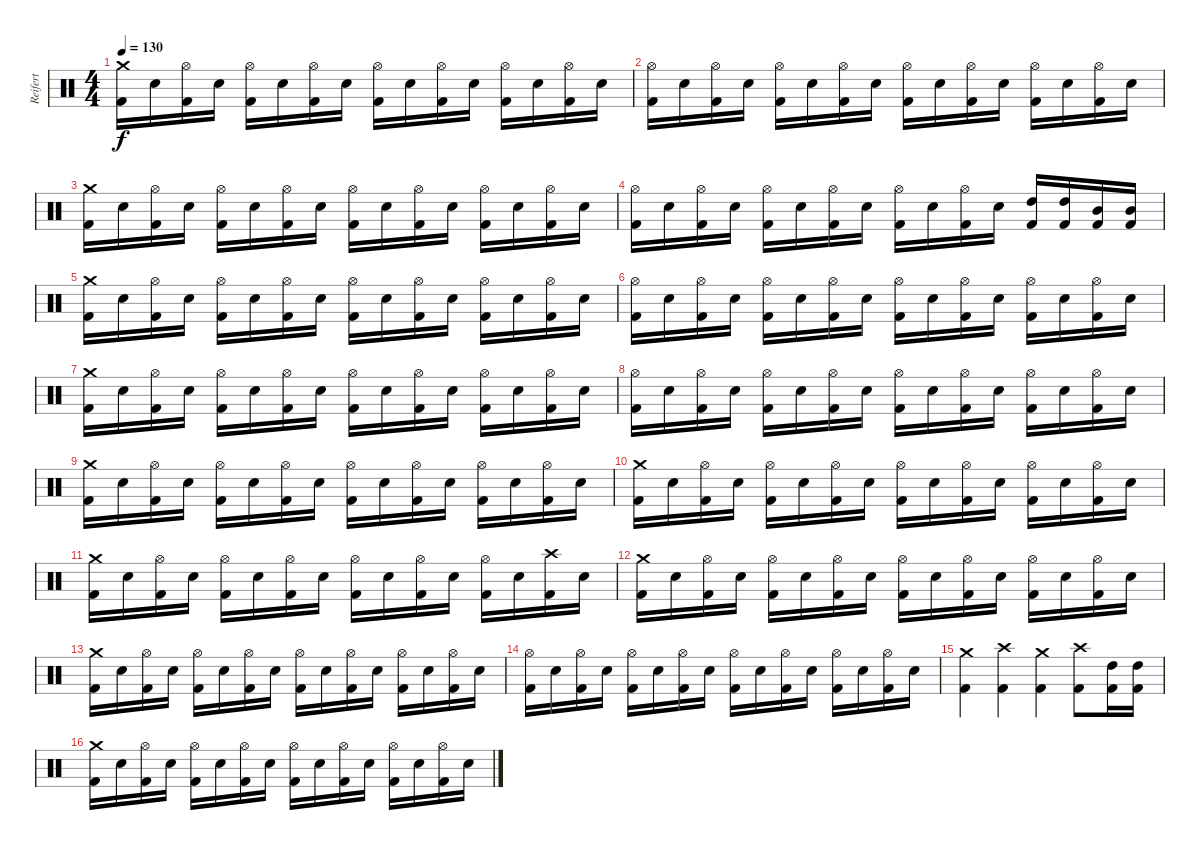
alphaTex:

\track ("Reifert" "Reifert") {instrument percussion}
\staff {score}
\articulation defaults
\ts (4 4)
\tempo 130
\clef neutral
\ks c
("Crash medium (hit)" "Kick (hit) 2").16{dy f} "Electric Snare (hit)".16 ("Hi-Hat (open)" "Kick (hit) 2").16 "Electric Snare (hit)".16 ("Hi-Hat (open)" "Kick (hit) 2").16 "Electric Snare (hit)".16 ("Hi-Hat (open)" "Kick (hit) 2").16 "Electric Snare (hit)".16 ("Hi-Hat (open)" "Kick (hit) 2").16 "Electric Snare (hit)".16 ("Hi-Hat (open)" "Kick (hit) 2").16 "Electric Snare (hit)".16 ("Hi-Hat (open)" "Kick (hit) 2").16 "Electric Snare (hit)".16 ("Hi-Hat (open)" "Kick (hit) 2").16 "Electric Snare (hit)".16 |
("Hi-Hat (open)" "Kick (hit) 2").16 "Electric Snare (hit)".16 ("Hi-Hat (open)" "Kick (hit) 2").16 "Electric Snare (hit)".16 ("Hi-Hat (open)" "Kick (hit) 2").16 "Electric Snare (hit)".16 ("Hi-Hat (open)" "Kick (hit) 2").16 "Electric Snare (hit)".16 ("Hi-Hat (open)" "Kick (hit) 2").16 "Electric Snare (hit)".16 ("Hi-Hat (open)" "Kick (hit) 2").16 "Electric Snare (hit)".16 ("Hi-Hat (open)" "Kick (hit) 2").16 "Electric Snare (hit)".16 ("Hi-Hat (open)" "Kick (hit) 2").16 "Electric Snare (hit)".16 |
("Crash medium (hit)" "Kick (hit) 2").16 "Electric Snare (hit)".16 ("Hi-Hat (open)" "Kick (hit) 2").16 "Electric Snare (hit)".16 ("Hi-Hat (open)" "Kick (hit) 2").16 "Electric Snare (hit)".16 ("Hi-Hat (open)" "Kick (hit) 2").16 "Electric Snare (hit)".16 ("Hi-Hat (open)" "Kick (hit) 2").16 "Electric Snare (hit)".16 ("Hi-Hat (open)" "Kick (hit) 2").16 "Electric Snare (hit)".16 ("Hi-Hat (open)" "Kick (hit) 2").16 "Electric Snare (hit)".16 ("Hi-Hat (open)" "Kick (hit) 2").16 "Electric Snare (hit)".16 |
("Hi-Hat (open)" "Kick (hit) 2").16 "Electric Snare (hit)".16 ("Hi-Hat (open)" "Kick (hit) 2").16 "Electric Snare (hit)".16 ("Hi-Hat (open)" "Kick (hit) 2").16 "Electric Snare (hit)".16 ("Hi-Hat (open)" "Kick (hit) 2").16 "Electric Snare (hit)".16 ("Hi-Hat (open)" "Kick (hit) 2").16 "Electric Snare (hit)".16 ("Hi-Hat (open)" "Kick (hit) 2").16 "Electric Snare (hit)".16 ("High Tom (hit)" "Kick (hit) 2").16 ("High Tom (hit)" "Kick (hit) 2").16 ("Mid Tom (hit)" "Kick (hit) 2").16 ("Mid Tom (hit)" "Kick (hit) 2").16 |
("Crash medium (hit)" "Kick (hit) 2").16 "Electric Snare (hit)".16 ("Hi-Hat (open)" "Kick (hit) 2").16 "Electric Snare (hit)".16 ("Hi-Hat (open)" "Kick (hit) 2").16 "Electric Snare (hit)".16 ("Hi-Hat (open)" "Kick (hit) 2").16 "Electric Snare (hit)".16 ("Hi-Hat (open)" "Kick (hit) 2").16 "Electric Snare (hit)".16 ("Hi-Hat (open)" "Kick (hit) 2").16 "Electric Snare (hit)".16 ("Hi-Hat (open)" "Kick (hit) 2").16 "Electric Snare (hit)".16 ("Hi-Hat (open)" "Kick (hit) 2").16 "Electric Snare (hit)".16 |
("Hi-Hat (open)" "Kick (hit) 2").16 "Electric Snare (hit)".16 ("Hi-Hat (open)" "Kick (hit) 2").16 "Electric Snare (hit)".16 ("Hi-Hat (open)" "Kick (hit) 2").16 "Electric Snare (hit)".16 ("Hi-Hat (open)" "Kick (hit) 2").16 "Electric Snare (hit)".16 ("Hi-Hat (open)" "Kick (hit) 2").16 "Electric Snare (hit)".16 ("Hi-Hat (open)" "Kick (hit) 2").16 "Electric Snare (hit)".16 ("Hi-Hat (open)" "Kick (hit) 2").16 "Electric Snare (hit)".16 ("Hi-Hat (open)" "Kick (hit) 2").16 "Electric Snare (hit)".16 |
("Crash medium (hit)" "Kick (hit) 2").16 "Electric Snare (hit)".16 ("Hi-Hat (open)" "Kick (hit) 2").16 "Electric Snare (hit)".16 ("Hi-Hat (open)" "Kick (hit) 2").16 "Electric Snare (hit)".16 ("Hi-Hat (open)" "Kick (hit) 2").16 "Electric Snare (hit)".16 ("Hi-Hat (open)" "Kick (hit) 2").16 "Electric Snare (hit)".16 ("Hi-Hat (open)" "Kick (hit) 2").16 "Electric Snare (hit)".16 ("Hi-Hat (open)" "Kick (hit) 2").16 "Electric Snare (hit)".16 ("Hi-Hat (open)" "Kick (hit) 2").16 "Electric Snare (hit)".16 |
("Hi-Hat (open)" "Kick (hit) 2").16 "Electric Snare (hit)".16 ("Hi-Hat (open)" "Kick (hit) 2").16 "Electric Snare (hit)".16 ("Hi-Hat (open)" "Kick (hit) 2").16 "Electric Snare (hit)".16 ("Hi-Hat (open)" "Kick (hit) 2").16 "Electric Snare (hit)".16 ("Hi-Hat (open)" "Kick (hit) 2").16 "Electric Snare (hit)".16 ("Hi-Hat (open)" "Kick (hit) 2").16 "Electric Snare (hit)".16 ("Hi-Hat (open)" "Kick (hit) 2").16 "Electric Snare (hit)".16 ("Hi-Hat (open)" "Kick (hit) 2").16 "Electric Snare (hit)".16 |
("Crash medium (hit)" "Kick (hit) 2").16 "Electric Snare (hit)".16 ("Hi-Hat (open)" "Kick (hit) 2").16 "Electric Snare (hit)".16 ("Hi-Hat (open)" "Kick (hit) 2").16 "Electric Snare (hit)".16 ("Hi-Hat (open)" "Kick (hit) 2").16 "Electric Snare (hit)".16 ("Hi-Hat (open)" "Kick (hit) 2").16 "Electric Snare (hit)".16 ("Hi-Hat (open)" "Kick (hit) 2").16 "Electric Snare (hit)".16 ("Hi-Hat (open)" "Kick (hit) 2").16 "Electric Snare (hit)".16 ("Hi-Hat (open)" "Kick (hit) 2").16 "Electric Snare (hit)".16 |
("Crash medium (hit)" "Kick (hit) 2").16 "Electric Snare (hit)".16 ("Hi-Hat (open)" "Kick (hit) 2").16 "Electric Snare (hit)".16 ("Hi-Hat (open)" "Kick (hit) 2").16 "Electric Snare (hit)".16 ("Hi-Hat (open)" "Kick (hit) 2").16 "Electric Snare (hit)".16 ("Hi-Hat (open)" "Kick (hit) 2").16 "Electric Snare (hit)".16 ("Hi-Hat (open)" "Kick (hit) 2").16 "Electric Snare (hit)".16 ("Hi-Hat (open)" "Kick (hit) 2").16 "Electric Snare (hit)".16 ("Hi-Hat (open)" "Kick (hit) 2").16 "Electric Snare (hit)".16 |
("Crash medium (hit)" "Kick (hit) 2").16 "Electric Snare (hit)".16 ("Hi-Hat (open)" "Kick (hit) 2").16 "Electric Snare (hit)".16 ("Hi-Hat (open)" "Kick (hit) 2").16 "Electric Snare (hit)".16 ("Hi-Hat (open)" "Kick (hit) 2").16 "Electric Snare (hit)".16 ("Hi-Hat (open)" "Kick (hit) 2").16 "Electric Snare (hit)".16 ("Hi-Hat (open)" "Kick (hit) 2").16 "Electric Snare (hit)".16 ("Hi-Hat (open)" "Kick (hit) 2").16 "Electric Snare (hit)".16 ("Crash high (hit)" "Kick (hit) 2").16 "Electric Snare (hit)".16 |
("Crash medium (hit)" "Kick (hit) 2").16 "Electric Snare (hit)".16 ("Hi-Hat (open)" "Kick (hit) 2").16 "Electric Snare (hit)".16 ("Hi-Hat (open)" "Kick (hit) 2").16 "Electric Snare (hit)".16 ("Hi-Hat (open)" "Kick (hit) 2").16 "Electric Snare (hit)".16 ("Hi-Hat (open)" "Kick (hit) 2").16 "Electric Snare (hit)".16 ("Hi-Hat (open)" "Kick (hit) 2").16 "Electric Snare (hit)".16 ("Hi-Hat (open)" "Kick (hit) 2").16 "Electric Snare (hit)".16 ("Hi-Hat (open)" "Kick (hit) 2").16 "Electric Snare (hit)".16 |
("Crash medium (hit)" "Kick (hit) 2").16 "Electric Snare (hit)".16 ("Hi-Hat (open)" "Kick (hit) 2").16 "Electric Snare (hit)".16 ("Hi-Hat (open)" "Kick (hit) 2").16 "Electric Snare (hit)".16 ("Hi-Hat (open)" "Kick (hit) 2").16 "Electric Snare (hit)".16 ("Hi-Hat (open)" "Kick (hit) 2").16 "Electric Snare (hit)".16 ("Hi-Hat (open)" "Kick (hit) 2").16 "Electric Snare (hit)".16 ("Hi-Hat (open)" "Kick (hit) 2").16 "Electric Snare (hit)".16 ("Hi-Hat (open)" "Kick (hit) 2").16 "Electric Snare (hit)".16 |
("Hi-Hat (open)" "Kick (hit) 2").16 "Electric Snare (hit)".16 ("Hi-Hat (open)" "Kick (hit) 2").16 "Electric Snare (hit)".16 ("Hi-Hat (open)" "Kick (hit) 2").16 "Electric Snare (hit)".16 ("Hi-Hat (open)" "Kick (hit) 2").16 "Electric Snare (hit)".16 ("Hi-Hat (open)" "Kick (hit) 2").16 "Electric Snare (hit)".16 ("Hi-Hat (open)" "Kick (hit) 2").16 "Electric Snare (hit)".16 ("Hi-Hat (open)" "Kick (hit) 2").16 "Electric Snare (hit)".16 ("Hi-Hat (open)" "Kick (hit) 2").16 "Electric Snare (hit)".16 |
("Crash medium (hit)" "Kick (hit) 2").4 ("Crash high (hit)" "Kick (hit) 2").4 ("Crash medium (hit)" "Kick (hit) 2").4 ("Crash high (hit)" "Kick (hit) 2").8 ("High Tom (hit)" "Kick (hit) 2").16 ("High Tom (hit)" "Kick (hit) 2").16 |
("Crash medium (hit)" "Kick (hit) 2").16 "Electric Snare (hit)".16 ("Hi-Hat (open)" "Kick (hit) 2").16 "Electric Snare (hit)".16 ("Hi-Hat (open)" "Kick (hit) 2").16 "Electric Snare (hit)".16 ("Hi-Hat (open)" "Kick (hit) 2").16 "Electric Snare (hit)".16 ("Hi-Hat (open)" "Kick (hit) 2").16 "Electric Snare (hit)".16 ("Hi-Hat (open)" "Kick (hit) 2").16 "Electric Snare (hit)".16 ("Hi-Hat (open)" "Kick (hit) 2").16 "Electric Snare (hit)".16 ("Hi-Hat (open)" "Kick (hit) 2").16 "Electric Snare (hit)".16
